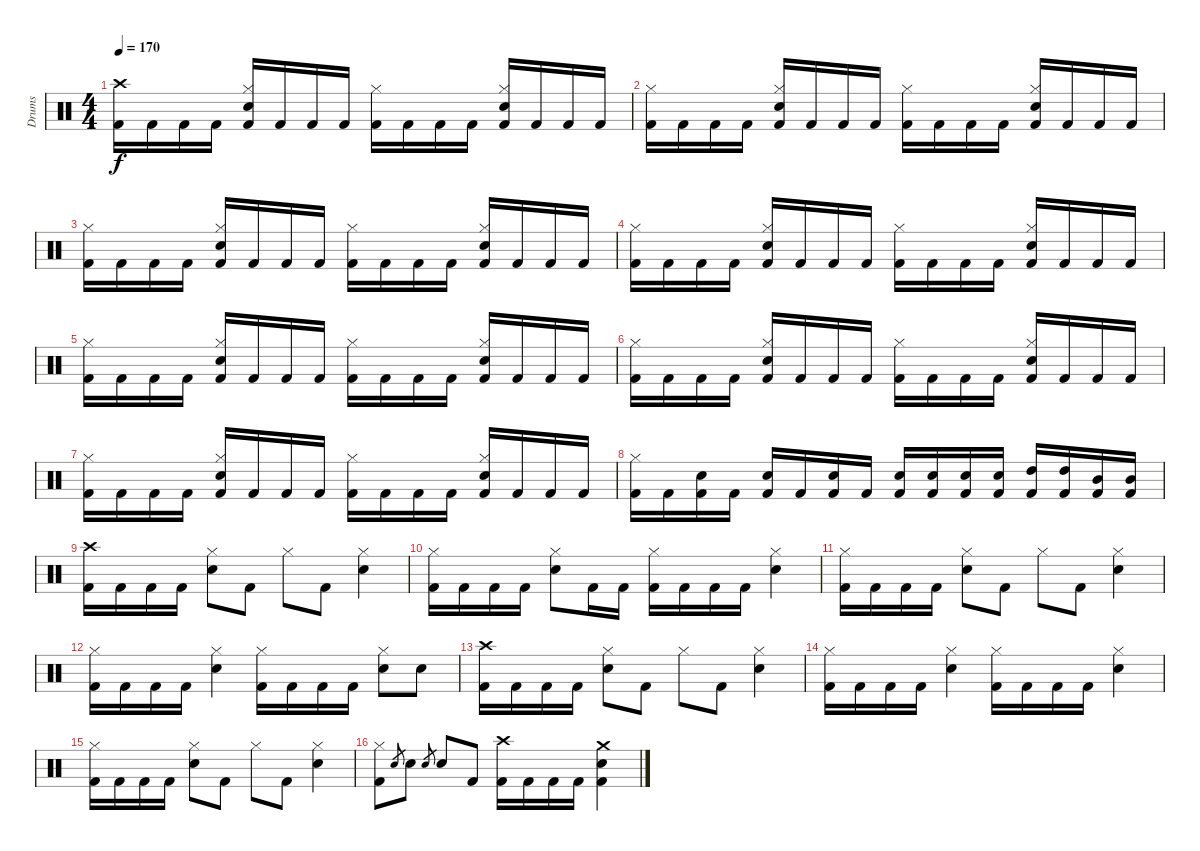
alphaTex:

\track ("Drums" "Drums") {instrument percussion}
\staff {score}
\articulation defaults
\ts (4 4)
\tempo 170
\clef neutral
\ks c
("Crash high (hit)" "Kick (hit) 2").16{dy f} "Kick (hit) 2".16 "Kick (hit) 2".16 "Kick (hit) 2".16 ("Hi-Hat (closed)" "Snare (hit) 2" "Kick (hit) 2").16 "Kick (hit) 2".16 "Kick (hit) 2".16 "Kick (hit) 2".16 ("Hi-Hat (closed)" "Kick (hit) 2").16 "Kick (hit) 2".16 "Kick (hit) 2".16 "Kick (hit) 2".16 ("Hi-Hat (closed)" "Snare (hit) 2" "Kick (hit) 2").16 "Kick (hit) 2".16 "Kick (hit) 2".16 "Kick (hit) 2".16 |
("Hi-Hat (closed)" "Kick (hit) 2").16 "Kick (hit) 2".16 "Kick (hit) 2".16 "Kick (hit) 2".16 ("Hi-Hat (closed)" "Snare (hit) 2" "Kick (hit) 2").16 "Kick (hit) 2".16 "Kick (hit) 2".16 "Kick (hit) 2".16 ("Hi-Hat (closed)" "Kick (hit) 2").16 "Kick (hit) 2".16 "Kick (hit) 2".16 "Kick (hit) 2".16 ("Hi-Hat (closed)" "Snare (hit) 2" "Kick (hit) 2").16 "Kick (hit) 2".16 "Kick (hit) 2".16 "Kick (hit) 2".16 |
("Hi-Hat (closed)" "Kick (hit) 2").16 "Kick (hit) 2".16 "Kick (hit) 2".16 "Kick (hit) 2".16 ("Hi-Hat (closed)" "Snare (hit) 2" "Kick (hit) 2").16 "Kick (hit) 2".16 "Kick (hit) 2".16 "Kick (hit) 2".16 ("Hi-Hat (closed)" "Kick (hit) 2").16 "Kick (hit) 2".16 "Kick (hit) 2".16 "Kick (hit) 2".16 ("Hi-Hat (closed)" "Snare (hit) 2" "Kick (hit) 2").16 "Kick (hit) 2".16 "Kick (hit) 2".16 "Kick (hit) 2".16 |
("Hi-Hat (closed)" "Kick (hit) 2").16 "Kick (hit) 2".16 "Kick (hit) 2".16 "Kick (hit) 2".16 ("Hi-Hat (closed)" "Snare (hit) 2" "Kick (hit) 2").16 "Kick (hit) 2".16 "Kick (hit) 2".16 "Kick (hit) 2".16 ("Hi-Hat (closed)" "Kick (hit) 2").16 "Kick (hit) 2".16 "Kick (hit) 2".16 "Kick (hit) 2".16 ("Hi-Hat (closed)" "Snare (hit) 2" "Kick (hit) 2").16 "Kick (hit) 2".16 "Kick (hit) 2".16 "Kick (hit) 2".16 |
("Hi-Hat (closed)" "Kick (hit) 2").16 "Kick (hit) 2".16 "Kick (hit) 2".16 "Kick (hit) 2".16 ("Hi-Hat (closed)" "Snare (hit) 2" "Kick (hit) 2").16 "Kick (hit) 2".16 "Kick (hit) 2".16 "Kick (hit) 2".16 ("Hi-Hat (closed)" "Kick (hit) 2").16 "Kick (hit) 2".16 "Kick (hit) 2".16 "Kick (hit) 2".16 ("Hi-Hat (closed)" "Snare (hit) 2" "Kick (hit) 2").16 "Kick (hit) 2".16 "Kick (hit) 2".16 "Kick (hit) 2".16 |
("Hi-Hat (closed)" "Kick (hit) 2").16 "Kick (hit) 2".16 "Kick (hit) 2".16 "Kick (hit) 2".16 ("Hi-Hat (closed)" "Snare (hit) 2" "Kick (hit) 2").16 "Kick (hit) 2".16 "Kick (hit) 2".16 "Kick (hit) 2".16 ("Hi-Hat (closed)" "Kick (hit) 2").16 "Kick (hit) 2".16 "Kick (hit) 2".16 "Kick (hit) 2".16 ("Hi-Hat (closed)" "Snare (hit) 2" "Kick (hit) 2").16 "Kick (hit) 2".16 "Kick (hit) 2".16 "Kick (hit) 2".16 |
("Hi-Hat (closed)" "Kick (hit) 2").16 "Kick (hit) 2".16 "Kick (hit) 2".16 "Kick (hit) 2".16 ("Hi-Hat (closed)" "Snare (hit) 2" "Kick (hit) 2").16 "Kick (hit) 2".16 "Kick (hit) 2".16 "Kick (hit) 2".16 ("Hi-Hat (closed)" "Kick (hit) 2").16 "Kick (hit) 2".16 "Kick (hit) 2".16 "Kick (hit) 2".16 ("Hi-Hat (closed)" "Snare (hit) 2" "Kick (hit) 2").16 "Kick (hit) 2".16 "Kick (hit) 2".16 "Kick (hit) 2".16 |
("Hi-Hat (closed)" "Kick (hit) 2").16 "Kick (hit) 2".16 ("Snare (hit) 2" "Kick (hit) 2").16 "Kick (hit) 2".16 ("Snare (hit) 2" "Kick (hit) 2").16 "Kick (hit) 2".16 ("Snare (hit) 2" "Kick (hit) 2").16 "Kick (hit) 2".16 ("Snare (hit) 2" "Kick (hit) 2").16 ("Snare (hit) 2" "Kick (hit) 2").16 ("Snare (hit) 2" "Kick (hit) 2").16 ("Snare (hit) 2" "Kick (hit) 2").16 ("High Tom (hit)" "Kick (hit) 2").16 ("High Tom (hit)" "Kick (hit) 2").16 ("Mid Tom (hit)" "Kick (hit) 2").16 ("Mid Tom (hit)" "Kick (hit) 2").16 |
("Crash high (hit)" "Kick (hit) 2").16 "Kick (hit) 2".16 "Kick (hit) 2".16 "Kick (hit) 2".16 ("Hi-Hat (closed)" "Snare (hit) 2").8 "Kick (hit) 2".8 "Hi-Hat (closed)".8 "Kick (hit) 2".8 ("Hi-Hat (closed)" "Snare (hit) 2").4 |
("Hi-Hat (closed)" "Kick (hit) 2").16 "Kick (hit) 2".16 "Kick (hit) 2".16 "Kick (hit) 2".16 ("Hi-Hat (closed)" "Snare (hit) 2").8 "Kick (hit) 2".16 "Kick (hit) 2".16 ("Hi-Hat (closed)" "Kick (hit) 2").16 "Kick (hit) 2".16 "Kick (hit) 2".16 "Kick (hit) 2".16 ("Hi-Hat (closed)" "Snare (hit) 2").4 |
("Hi-Hat (closed)" "Kick (hit) 2").16 "Kick (hit) 2".16 "Kick (hit) 2".16 "Kick (hit) 2".16 ("Hi-Hat (closed)" "Snare (hit) 2").8 "Kick (hit) 2".8 "Hi-Hat (closed)".8 "Kick (hit) 2".8 ("Hi-Hat (closed)" "Snare (hit) 2").4 |
("Hi-Hat (closed)" "Kick (hit) 2").16 "Kick (hit) 2".16 "Kick (hit) 2".16 "Kick (hit) 2".16 ("Hi-Hat (closed)" "Snare (hit) 2").4 ("Hi-Hat (closed)" "Kick (hit) 2").16 "Kick (hit) 2".16 "Kick (hit) 2".16 "Kick (hit) 2".16 ("Hi-Hat (closed)" "Snare (hit) 2").8 "Snare (hit) 2".8 |
("Crash high (hit)" "Kick (hit) 2").16 "Kick (hit) 2".16 "Kick (hit) 2".16 "Kick (hit) 2".16 ("Hi-Hat (closed)" "Snare (hit) 2").8 "Kick (hit) 2".8 "Hi-Hat (closed)".8 "Kick (hit) 2".8 ("Hi-Hat (closed)" "Snare (hit) 2").4 |
("Hi-Hat (closed)" "Kick (hit) 2").16 "Kick (hit) 2".16 "Kick (hit) 2".16 "Kick (hit) 2".16 ("Hi-Hat (closed)" "Snare (hit) 2").4 ("Hi-Hat (closed)" "Kick (hit) 2").16 "Kick (hit) 2".16 "Kick (hit) 2".16 "Kick (hit) 2".16 ("Hi-Hat (closed)" "Snare (hit) 2").4 |
("Hi-Hat (closed)" "Kick (hit) 2").16 "Kick (hit) 2".16 "Kick (hit) 2".16 "Kick (hit) 2".16 ("Hi-Hat (closed)" "Snare (hit) 2").8 "Kick (hit) 2".8 "Hi-Hat (closed)".8 "Kick (hit) 2".8 ("Hi-Hat (closed)" "Snare (hit) 2").4 |
("Hi-Hat (closed)" "Kick (hit) 2").8 "Snare (hit) 2".8{gr} "Snare (hit) 2".8 "Snare (hit) 2".8{gr} "Snare (hit) 2".8 "Kick (hit) 2".8 ("Crash high (hit)" "Kick (hit) 2").16 "Kick (hit) 2".16 "Kick (hit) 2".16 "Kick (hit) 2".16 ("Crash medium (hit)" "Snare (hit) 2" "Kick (hit) 2").4
